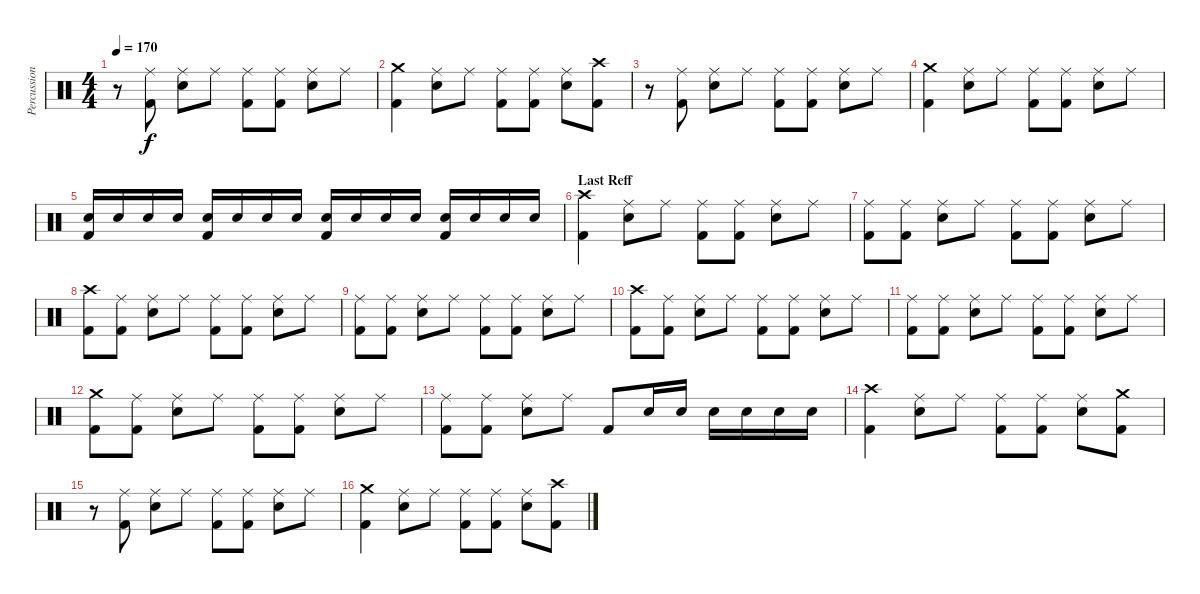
\track ("Percussion" "Percussion") {instrument percussion}
\staff {score}
\articulation defaults
\ts (4 4)
\tempo 170
\clef neutral
\ks c
r.8{dy f} ("Kick (hit) 2" "Ride (middle)").8 ("Electric Snare (hit)" "Ride (middle)").8 "Ride (middle)".8 ("Kick (hit) 2" "Ride (middle)").8 ("Kick (hit) 2" "Ride (middle)").8 ("Electric Snare (hit)" "Ride (middle)").8 "Ride (middle)".8 |
("Kick (hit) 2" "Crash medium (hit)").4 ("Electric Snare (hit)" "Ride (middle)").8 "Ride (middle)".8 ("Kick (hit) 2" "Ride (middle)").8 ("Kick (hit) 2" "Ride (middle)").8 ("Electric Snare (hit)" "Ride (middle)").8 ("Kick (hit) 2" "Crash high (hit)").8 |
r.8 ("Kick (hit) 2" "Ride (middle)").8 ("Electric Snare (hit)" "Ride (middle)").8 "Ride (middle)".8 ("Kick (hit) 2" "Ride (middle)").8 ("Kick (hit) 2" "Ride (middle)").8 ("Electric Snare (hit)" "Ride (middle)").8 "Ride (middle)".8 |
("Kick (hit) 2" "Crash medium (hit)").4 ("Electric Snare (hit)" "Ride (middle)").8 "Ride (middle)".8 ("Kick (hit) 2" "Ride (middle)").8 ("Kick (hit) 2" "Ride (middle)").8 ("Electric Snare (hit)" "Ride (middle)").8 "Ride (middle)".8 |
("Kick (hit) 2" "Electric Snare (hit)").16 "Electric Snare (hit)".16 "Electric Snare (hit)".16 "Electric Snare (hit)".16 ("Kick (hit) 2" "Electric Snare (hit)").16 "Electric Snare (hit)".16 "Electric Snare (hit)".16 "Electric Snare (hit)".16 ("Kick (hit) 2" "Electric Snare (hit)").16 "Electric Snare (hit)".16 "Electric Snare (hit)".16 "Electric Snare (hit)".16 ("Kick (hit) 2" "Electric Snare (hit)").16 "Electric Snare (hit)".16 "Electric Snare (hit)".16 "Electric Snare (hit)".16 |
\section ("" "Last Reff")
("Kick (hit) 2" "Crash high (hit)").4 ("Electric Snare (hit)" "Ride (middle)").8 "Ride (middle)".8 ("Kick (hit) 2" "Ride (middle)").8 ("Kick (hit) 2" "Ride (middle)").8 ("Electric Snare (hit)" "Ride (middle)").8 "Ride (middle)".8 |
("Kick (hit) 2" "Ride (middle)").8 ("Kick (hit) 2" "Ride (middle)").8 ("Electric Snare (hit)" "Ride (middle)").8 "Ride (middle)".8 ("Kick (hit) 2" "Ride (middle)").8 ("Kick (hit) 2" "Ride (middle)").8 ("Electric Snare (hit)" "Ride (middle)").8 "Ride (middle)".8 |
("Kick (hit) 2" "Crash high (hit)").8 ("Kick (hit) 2" "Ride (middle)").8 ("Electric Snare (hit)" "Ride (middle)").8 "Ride (middle)".8 ("Kick (hit) 2" "Ride (middle)").8 ("Kick (hit) 2" "Ride (middle)").8 ("Electric Snare (hit)" "Ride (middle)").8 "Ride (middle)".8 |
("Kick (hit) 2" "Ride (middle)").8 ("Kick (hit) 2" "Ride (middle)").8 ("Electric Snare (hit)" "Ride (middle)").8 "Ride (middle)".8 ("Kick (hit) 2" "Ride (middle)").8 ("Kick (hit) 2" "Ride (middle)").8 ("Electric Snare (hit)" "Ride (middle)").8 "Ride (middle)".8 |
("Kick (hit) 2" "Crash high (hit)").8 ("Kick (hit) 2" "Ride (middle)").8 ("Electric Snare (hit)" "Ride (middle)").8 "Ride (middle)".8 ("Kick (hit) 2" "Ride (middle)").8 ("Kick (hit) 2" "Ride (middle)").8 ("Electric Snare (hit)" "Ride (middle)").8 "Ride (middle)".8 |
("Kick (hit) 2" "Ride (middle)").8 ("Kick (hit) 2" "Ride (middle)").8 ("Electric Snare (hit)" "Ride (middle)").8 "Ride (middle)".8 ("Kick (hit) 2" "Ride (middle)").8 ("Kick (hit) 2" "Ride (middle)").8 ("Electric Snare (hit)" "Ride (middle)").8 "Ride (middle)".8 |
("Kick (hit) 2" "Crash medium (hit)").8 ("Kick (hit) 2" "Ride (middle)").8 ("Electric Snare (hit)" "Ride (middle)").8 "Ride (middle)".8 ("Kick (hit) 2" "Ride (middle)").8 ("Kick (hit) 2" "Ride (middle)").8 ("Electric Snare (hit)" "Ride (middle)").8 "Ride (middle)".8 |
("Kick (hit) 2" "Ride (middle)").8 ("Kick (hit) 2" "Ride (middle)").8 ("Electric Snare (hit)" "Ride (middle)").8 "Ride (middle)".8 "Kick (hit) 2".8 "Electric Snare (hit)".16 "Electric Snare (hit)".16 "Electric Snare (hit)".16 "Electric Snare (hit)".16 "Electric Snare (hit)".16 "Electric Snare (hit)".16 |
("Kick (hit) 2" "Crash high (hit)").4 ("Electric Snare (hit)" "Ride (middle)").8 "Ride (middle)".8 ("Kick (hit) 2" "Ride (middle)").8 ("Kick (hit) 2" "Ride (middle)").8 ("Electric Snare (hit)" "Ride (middle)").8 ("Kick (hit) 2" "Crash medium (hit)").8 |
r.8 ("Kick (hit) 2" "Ride (middle)").8 ("Electric Snare (hit)" "Ride (middle)").8 "Ride (middle)".8 ("Kick (hit) 2" "Ride (middle)").8 ("Kick (hit) 2" "Ride (middle)").8 ("Electric Snare (hit)" "Ride (middle)").8 "Ride (middle)".8 |
("Kick (hit) 2" "Crash medium (hit)").4 ("Electric Snare (hit)" "Ride (middle)").8 "Ride (middle)".8 ("Kick (hit) 2" "Ride (middle)").8 ("Kick (hit) 2" "Ride (middle)").8 ("Electric Snare (hit)" "Ride (middle)").8 ("Kick (hit) 2" "Crash high (hit)").8
